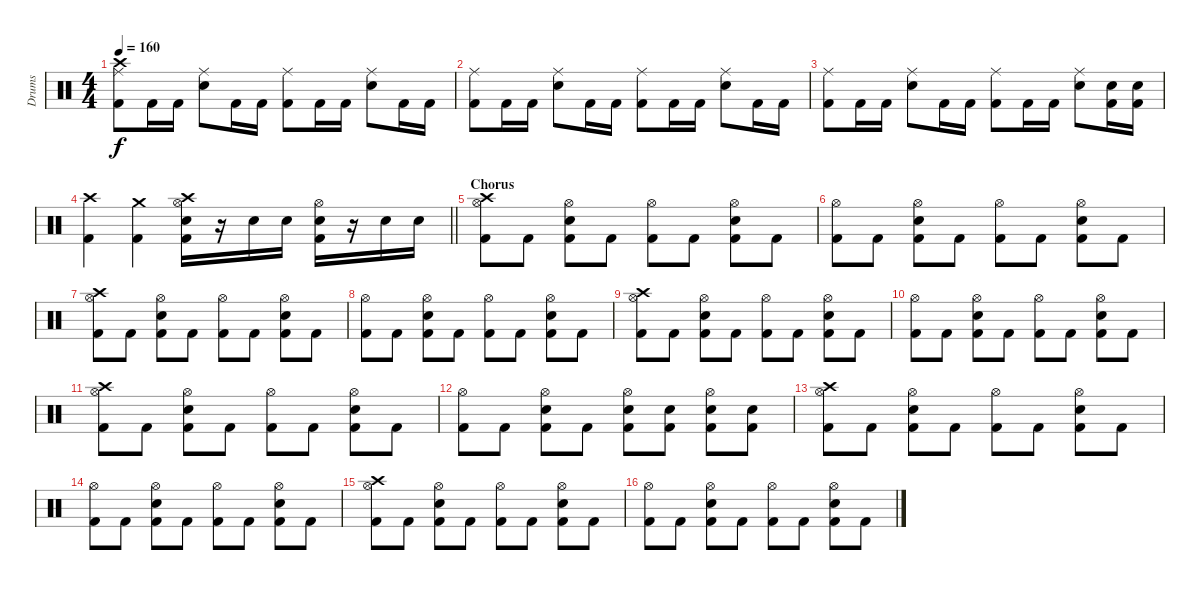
\track ("Drums" "Drums") {instrument percussion}
\staff {score}
\articulation defaults
\ts (4 4)
\tempo 160
\clef neutral
\ks c
("Crash high (hit)" "Ride (middle)" "Kick (hit) 2").8{dy f} "Kick (hit) 2".16 "Kick (hit) 2".16 ("Ride (middle)" "Snare (hit) 2").8 "Kick (hit) 2".16 "Kick (hit) 2".16 ("Ride (middle)" "Kick (hit) 2").8 "Kick (hit) 2".16 "Kick (hit) 2".16 ("Ride (middle)" "Snare (hit) 2").8 "Kick (hit) 2".16 "Kick (hit) 2".16 |
("Ride (middle)" "Kick (hit) 2").8 "Kick (hit) 2".16 "Kick (hit) 2".16 ("Ride (middle)" "Snare (hit) 2").8 "Kick (hit) 2".16 "Kick (hit) 2".16 ("Ride (middle)" "Kick (hit) 2").8 "Kick (hit) 2".16 "Kick (hit) 2".16 ("Ride (middle)" "Snare (hit) 2").8 "Kick (hit) 2".16 "Kick (hit) 2".16 |
("Ride (middle)" "Kick (hit) 2").8 "Kick (hit) 2".16 "Kick (hit) 2".16 ("Ride (middle)" "Snare (hit) 2").8 "Kick (hit) 2".16 "Kick (hit) 2".16 ("Ride (middle)" "Kick (hit) 2").8 "Kick (hit) 2".16 "Kick (hit) 2".16 ("Ride (middle)" "Snare (hit) 2").8 ("Snare (hit) 2" "Kick (hit) 2").16 ("Snare (hit) 2" "Kick (hit) 2").16 |
\barLineRight lightlight
("Crash high (hit)" "Kick (hit) 2").4 ("Crash medium (hit)" "Kick (hit) 2").4 ("Crash high (hit)" "Hi-Hat (open)" "Snare (hit) 2" "Kick (hit) 2").16 r.16 "Snare (hit) 2".16 "Snare (hit) 2".16 ("Hi-Hat (open)" "Snare (hit) 2" "Kick (hit) 2").16 r.16 "Snare (hit) 2".16 "Snare (hit) 2".16 |
\section ("" "Chorus")
("Crash high (hit)" "Hi-Hat (open)" "Kick (hit) 2").8 "Kick (hit) 2".8 ("Hi-Hat (open)" "Snare (hit) 2" "Kick (hit) 2").8 "Kick (hit) 2".8 ("Hi-Hat (open)" "Kick (hit) 2").8 "Kick (hit) 2".8 ("Hi-Hat (open)" "Snare (hit) 2" "Kick (hit) 2").8 "Kick (hit) 2".8 |
("Hi-Hat (open)" "Kick (hit) 2").8 "Kick (hit) 2".8 ("Hi-Hat (open)" "Snare (hit) 2" "Kick (hit) 2").8 "Kick (hit) 2".8 ("Hi-Hat (open)" "Kick (hit) 2").8 "Kick (hit) 2".8 ("Hi-Hat (open)" "Snare (hit) 2" "Kick (hit) 2").8 "Kick (hit) 2".8 |
("Crash high (hit)" "Hi-Hat (open)" "Kick (hit) 2").8 "Kick (hit) 2".8 ("Hi-Hat (open)" "Snare (hit) 2" "Kick (hit) 2").8 "Kick (hit) 2".8 ("Hi-Hat (open)" "Kick (hit) 2").8 "Kick (hit) 2".8 ("Hi-Hat (open)" "Snare (hit) 2" "Kick (hit) 2").8 "Kick (hit) 2".8 |
("Hi-Hat (open)" "Kick (hit) 2").8 "Kick (hit) 2".8 ("Hi-Hat (open)" "Snare (hit) 2" "Kick (hit) 2").8 "Kick (hit) 2".8 ("Hi-Hat (open)" "Kick (hit) 2").8 "Kick (hit) 2".8 ("Hi-Hat (open)" "Snare (hit) 2" "Kick (hit) 2").8 "Kick (hit) 2".8 |
("Crash high (hit)" "Hi-Hat (open)" "Kick (hit) 2").8 "Kick (hit) 2".8 ("Hi-Hat (open)" "Snare (hit) 2" "Kick (hit) 2").8 "Kick (hit) 2".8 ("Hi-Hat (open)" "Kick (hit) 2").8 "Kick (hit) 2".8 ("Hi-Hat (open)" "Snare (hit) 2" "Kick (hit) 2").8 "Kick (hit) 2".8 |
("Hi-Hat (open)" "Kick (hit) 2").8 "Kick (hit) 2".8 ("Hi-Hat (open)" "Snare (hit) 2" "Kick (hit) 2").8 "Kick (hit) 2".8 ("Hi-Hat (open)" "Kick (hit) 2").8 "Kick (hit) 2".8 ("Hi-Hat (open)" "Snare (hit) 2" "Kick (hit) 2").8 "Kick (hit) 2".8 |
("Crash high (hit)" "Hi-Hat (open)" "Kick (hit) 2").8 "Kick (hit) 2".8 ("Hi-Hat (open)" "Snare (hit) 2" "Kick (hit) 2").8 "Kick (hit) 2".8 ("Hi-Hat (open)" "Kick (hit) 2").8 "Kick (hit) 2".8 ("Hi-Hat (open)" "Snare (hit) 2" "Kick (hit) 2").8 "Kick (hit) 2".8 |
("Hi-Hat (open)" "Kick (hit) 2").8 "Kick (hit) 2".8 ("Hi-Hat (open)" "Snare (hit) 2" "Kick (hit) 2").8 "Kick (hit) 2".8 ("Hi-Hat (open)" "Snare (hit) 2" "Kick (hit) 2").8 ("Snare (hit) 2" "Kick (hit) 2").8 ("Hi-Hat (open)" "Snare (hit) 2" "Kick (hit) 2").8 ("Snare (hit) 2" "Kick (hit) 2").8 |
("Crash high (hit)" "Hi-Hat (open)" "Kick (hit) 2").8 "Kick (hit) 2".8 ("Hi-Hat (open)" "Snare (hit) 2" "Kick (hit) 2").8 "Kick (hit) 2".8 ("Hi-Hat (open)" "Kick (hit) 2").8 "Kick (hit) 2".8 ("Hi-Hat (open)" "Snare (hit) 2" "Kick (hit) 2").8 "Kick (hit) 2".8 |
("Hi-Hat (open)" "Kick (hit) 2").8 "Kick (hit) 2".8 ("Hi-Hat (open)" "Snare (hit) 2" "Kick (hit) 2").8 "Kick (hit) 2".8 ("Hi-Hat (open)" "Kick (hit) 2").8 "Kick (hit) 2".8 ("Hi-Hat (open)" "Snare (hit) 2" "Kick (hit) 2").8 "Kick (hit) 2".8 |
("Crash high (hit)" "Hi-Hat (open)" "Kick (hit) 2").8 "Kick (hit) 2".8 ("Hi-Hat (open)" "Snare (hit) 2" "Kick (hit) 2").8 "Kick (hit) 2".8 ("Hi-Hat (open)" "Kick (hit) 2").8 "Kick (hit) 2".8 ("Hi-Hat (open)" "Snare (hit) 2" "Kick (hit) 2").8 "Kick (hit) 2".8 |
("Hi-Hat (open)" "Kick (hit) 2").8 "Kick (hit) 2".8 ("Hi-Hat (open)" "Snare (hit) 2" "Kick (hit) 2").8 "Kick (hit) 2".8 ("Hi-Hat (open)" "Kick (hit) 2").8 "Kick (hit) 2".8 ("Hi-Hat (open)" "Snare (hit) 2" "Kick (hit) 2").8 "Kick (hit) 2".8
